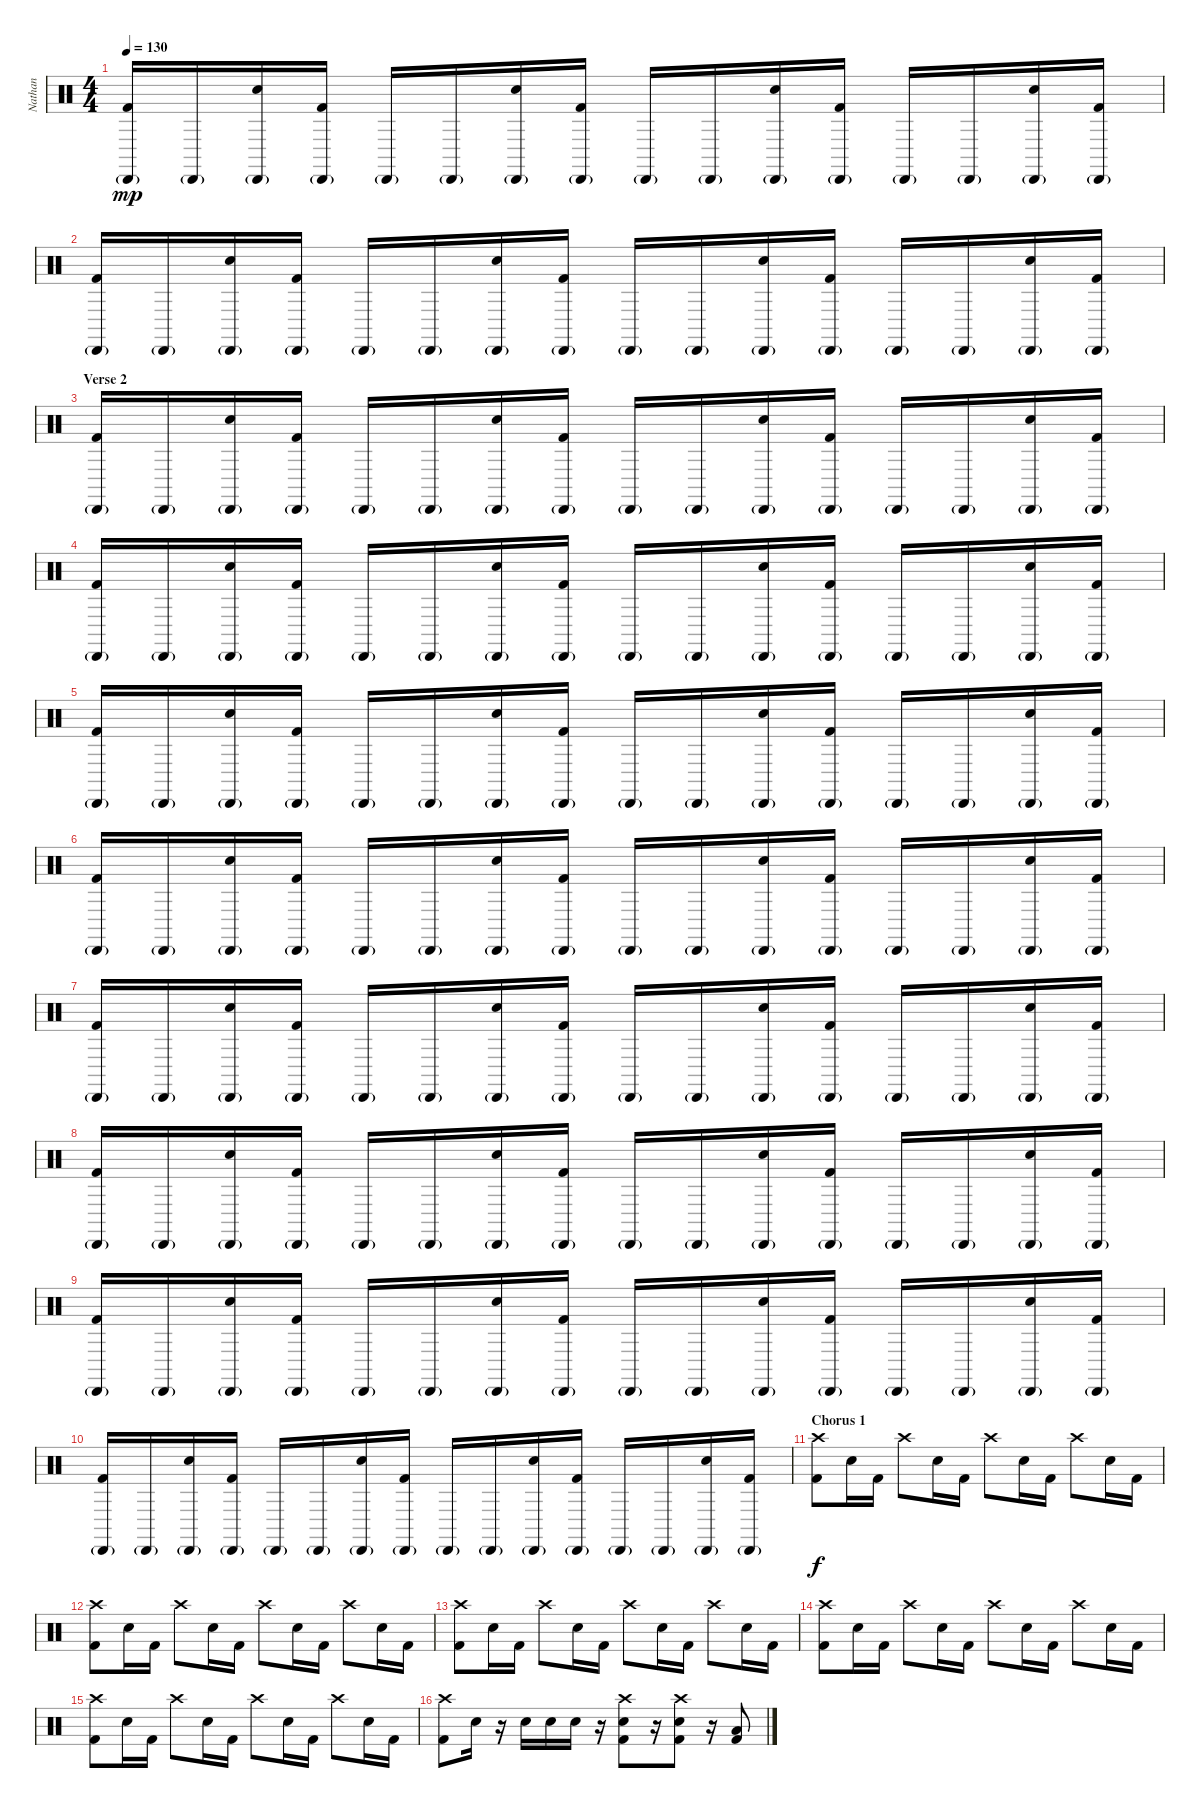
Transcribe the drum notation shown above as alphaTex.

\track ("Nathan" "Nathan") {instrument percussion}
\staff {score}
\articulation defaults
\ts (4 4)
\tempo 130
\clef neutral
\ks c
("Cabasa (hit)"{g} "Kick (hit) 2").16{dy mp} "Cabasa (hit)"{g}.16 ("Cabasa (hit)"{g} "Snare (hit) 2").16 ("Cabasa (hit)"{g} "Kick (hit) 2").16 "Cabasa (hit)"{g}.16 "Cabasa (hit)"{g}.16 ("Cabasa (hit)"{g} "Snare (hit) 2").16 ("Cabasa (hit)"{g} "Kick (hit) 2").16 "Cabasa (hit)"{g}.16 "Cabasa (hit)"{g}.16 ("Cabasa (hit)"{g} "Snare (hit) 2").16 ("Cabasa (hit)"{g} "Kick (hit) 2").16 "Cabasa (hit)"{g}.16 "Cabasa (hit)"{g}.16 ("Cabasa (hit)"{g} "Snare (hit) 2").16 ("Cabasa (hit)"{g} "Kick (hit) 2").16 |
("Cabasa (hit)"{g} "Kick (hit) 2").16 "Cabasa (hit)"{g}.16 ("Cabasa (hit)"{g} "Snare (hit) 2").16 ("Cabasa (hit)"{g} "Kick (hit) 2").16 "Cabasa (hit)"{g}.16 "Cabasa (hit)"{g}.16 ("Cabasa (hit)"{g} "Snare (hit) 2").16 ("Cabasa (hit)"{g} "Kick (hit) 2").16 "Cabasa (hit)"{g}.16 "Cabasa (hit)"{g}.16 ("Cabasa (hit)"{g} "Snare (hit) 2").16 ("Cabasa (hit)"{g} "Kick (hit) 2").16 "Cabasa (hit)"{g}.16 "Cabasa (hit)"{g}.16 ("Cabasa (hit)"{g} "Snare (hit) 2").16 ("Cabasa (hit)"{g} "Kick (hit) 2").16 |
\section ("" "Verse 2")
("Cabasa (hit)"{g} "Kick (hit) 2").16 "Cabasa (hit)"{g}.16 ("Cabasa (hit)"{g} "Snare (hit) 2").16 ("Cabasa (hit)"{g} "Kick (hit) 2").16 "Cabasa (hit)"{g}.16 "Cabasa (hit)"{g}.16 ("Cabasa (hit)"{g} "Snare (hit) 2").16 ("Cabasa (hit)"{g} "Kick (hit) 2").16 "Cabasa (hit)"{g}.16 "Cabasa (hit)"{g}.16 ("Cabasa (hit)"{g} "Snare (hit) 2").16 ("Cabasa (hit)"{g} "Kick (hit) 2").16 "Cabasa (hit)"{g}.16 "Cabasa (hit)"{g}.16 ("Cabasa (hit)"{g} "Snare (hit) 2").16 ("Cabasa (hit)"{g} "Kick (hit) 2").16 |
("Cabasa (hit)"{g} "Kick (hit) 2").16 "Cabasa (hit)"{g}.16 ("Cabasa (hit)"{g} "Snare (hit) 2").16 ("Cabasa (hit)"{g} "Kick (hit) 2").16 "Cabasa (hit)"{g}.16 "Cabasa (hit)"{g}.16 ("Cabasa (hit)"{g} "Snare (hit) 2").16 ("Cabasa (hit)"{g} "Kick (hit) 2").16 "Cabasa (hit)"{g}.16 "Cabasa (hit)"{g}.16 ("Cabasa (hit)"{g} "Snare (hit) 2").16 ("Cabasa (hit)"{g} "Kick (hit) 2").16 "Cabasa (hit)"{g}.16 "Cabasa (hit)"{g}.16 ("Cabasa (hit)"{g} "Snare (hit) 2").16 ("Cabasa (hit)"{g} "Kick (hit) 2").16 |
("Cabasa (hit)"{g} "Kick (hit) 2").16 "Cabasa (hit)"{g}.16 ("Cabasa (hit)"{g} "Snare (hit) 2").16 ("Cabasa (hit)"{g} "Kick (hit) 2").16 "Cabasa (hit)"{g}.16 "Cabasa (hit)"{g}.16 ("Cabasa (hit)"{g} "Snare (hit) 2").16 ("Cabasa (hit)"{g} "Kick (hit) 2").16 "Cabasa (hit)"{g}.16 "Cabasa (hit)"{g}.16 ("Cabasa (hit)"{g} "Snare (hit) 2").16 ("Cabasa (hit)"{g} "Kick (hit) 2").16 "Cabasa (hit)"{g}.16 "Cabasa (hit)"{g}.16 ("Cabasa (hit)"{g} "Snare (hit) 2").16 ("Cabasa (hit)"{g} "Kick (hit) 2").16 |
("Cabasa (hit)"{g} "Kick (hit) 2").16 "Cabasa (hit)"{g}.16 ("Cabasa (hit)"{g} "Snare (hit) 2").16 ("Cabasa (hit)"{g} "Kick (hit) 2").16 "Cabasa (hit)"{g}.16 "Cabasa (hit)"{g}.16 ("Cabasa (hit)"{g} "Snare (hit) 2").16 ("Cabasa (hit)"{g} "Kick (hit) 2").16 "Cabasa (hit)"{g}.16 "Cabasa (hit)"{g}.16 ("Cabasa (hit)"{g} "Snare (hit) 2").16 ("Cabasa (hit)"{g} "Kick (hit) 2").16 "Cabasa (hit)"{g}.16 "Cabasa (hit)"{g}.16 ("Cabasa (hit)"{g} "Snare (hit) 2").16 ("Cabasa (hit)"{g} "Kick (hit) 2").16 |
("Cabasa (hit)"{g} "Kick (hit) 2").16 "Cabasa (hit)"{g}.16 ("Cabasa (hit)"{g} "Snare (hit) 2").16 ("Cabasa (hit)"{g} "Kick (hit) 2").16 "Cabasa (hit)"{g}.16 "Cabasa (hit)"{g}.16 ("Cabasa (hit)"{g} "Snare (hit) 2").16 ("Cabasa (hit)"{g} "Kick (hit) 2").16 "Cabasa (hit)"{g}.16 "Cabasa (hit)"{g}.16 ("Cabasa (hit)"{g} "Snare (hit) 2").16 ("Cabasa (hit)"{g} "Kick (hit) 2").16 "Cabasa (hit)"{g}.16 "Cabasa (hit)"{g}.16 ("Cabasa (hit)"{g} "Snare (hit) 2").16 ("Cabasa (hit)"{g} "Kick (hit) 2").16 |
("Cabasa (hit)"{g} "Kick (hit) 2").16 "Cabasa (hit)"{g}.16 ("Cabasa (hit)"{g} "Snare (hit) 2").16 ("Cabasa (hit)"{g} "Kick (hit) 2").16 "Cabasa (hit)"{g}.16 "Cabasa (hit)"{g}.16 ("Cabasa (hit)"{g} "Snare (hit) 2").16 ("Cabasa (hit)"{g} "Kick (hit) 2").16 "Cabasa (hit)"{g}.16 "Cabasa (hit)"{g}.16 ("Cabasa (hit)"{g} "Snare (hit) 2").16 ("Cabasa (hit)"{g} "Kick (hit) 2").16 "Cabasa (hit)"{g}.16 "Cabasa (hit)"{g}.16 ("Cabasa (hit)"{g} "Snare (hit) 2").16 ("Cabasa (hit)"{g} "Kick (hit) 2").16 |
("Cabasa (hit)"{g} "Kick (hit) 2").16 "Cabasa (hit)"{g}.16 ("Cabasa (hit)"{g} "Snare (hit) 2").16 ("Cabasa (hit)"{g} "Kick (hit) 2").16 "Cabasa (hit)"{g}.16 "Cabasa (hit)"{g}.16 ("Cabasa (hit)"{g} "Snare (hit) 2").16 ("Cabasa (hit)"{g} "Kick (hit) 2").16 "Cabasa (hit)"{g}.16 "Cabasa (hit)"{g}.16 ("Cabasa (hit)"{g} "Snare (hit) 2").16 ("Cabasa (hit)"{g} "Kick (hit) 2").16 "Cabasa (hit)"{g}.16 "Cabasa (hit)"{g}.16 ("Cabasa (hit)"{g} "Snare (hit) 2").16 ("Cabasa (hit)"{g} "Kick (hit) 2").16 |
("Cabasa (hit)"{g} "Kick (hit) 2").16 "Cabasa (hit)"{g}.16 ("Cabasa (hit)"{g} "Snare (hit) 2").16 ("Cabasa (hit)"{g} "Kick (hit) 2").16 "Cabasa (hit)"{g}.16 "Cabasa (hit)"{g}.16 ("Cabasa (hit)"{g} "Snare (hit) 2").16 ("Cabasa (hit)"{g} "Kick (hit) 2").16 "Cabasa (hit)"{g}.16 "Cabasa (hit)"{g}.16 ("Cabasa (hit)"{g} "Snare (hit) 2").16 ("Cabasa (hit)"{g} "Kick (hit) 2").16 "Cabasa (hit)"{g}.16 "Cabasa (hit)"{g}.16 ("Cabasa (hit)"{g} "Snare (hit) 2").16 ("Cabasa (hit)"{g} "Kick (hit) 2").16 |
\section ("" "Chorus 1")
("Crash high (hit)" "Kick (hit) 2").8{dy f} "Snare (hit) 2".16 "Kick (hit) 2".16 "Crash high (hit)".8 "Snare (hit) 2".16 "Kick (hit) 2".16 "Crash high (hit)".8 "Snare (hit) 2".16 "Kick (hit) 2".16 "Crash high (hit)".8 "Snare (hit) 2".16 "Kick (hit) 2".16 |
("Crash high (hit)" "Kick (hit) 2").8 "Snare (hit) 2".16 "Kick (hit) 2".16 "Crash high (hit)".8 "Snare (hit) 2".16 "Kick (hit) 2".16 "Crash high (hit)".8 "Snare (hit) 2".16 "Kick (hit) 2".16 "Crash high (hit)".8 "Snare (hit) 2".16 "Kick (hit) 2".16 |
("Crash high (hit)" "Kick (hit) 2").8 "Snare (hit) 2".16 "Kick (hit) 2".16 "Crash high (hit)".8 "Snare (hit) 2".16 "Kick (hit) 2".16 "Crash high (hit)".8 "Snare (hit) 2".16 "Kick (hit) 2".16 "Crash high (hit)".8 "Snare (hit) 2".16 "Kick (hit) 2".16 |
("Crash high (hit)" "Kick (hit) 2").8 "Snare (hit) 2".16 "Kick (hit) 2".16 "Crash high (hit)".8 "Snare (hit) 2".16 "Kick (hit) 2".16 "Crash high (hit)".8 "Snare (hit) 2".16 "Kick (hit) 2".16 "Crash high (hit)".8 "Snare (hit) 2".16 "Kick (hit) 2".16 |
("Crash high (hit)" "Kick (hit) 2").8 "Snare (hit) 2".16 "Kick (hit) 2".16 "Crash high (hit)".8 "Snare (hit) 2".16 "Kick (hit) 2".16 "Crash high (hit)".8 "Snare (hit) 2".16 "Kick (hit) 2".16 "Crash high (hit)".8 "Snare (hit) 2".16 "Kick (hit) 2".16 |
("Crash high (hit)" "Kick (hit) 2").8 "Snare (hit) 2".16 r.16 "Snare (hit) 2".16 "Snare (hit) 2".16 "Snare (hit) 2".16 r.16 ("Crash high (hit)" "Snare (hit) 2" "Kick (hit) 2").8 r.16 ("Crash high (hit)" "Snare (hit) 2" "Kick (hit) 2").8 r.16 ("Low Floor Tom (hit)" "Kick (hit) 2").8
